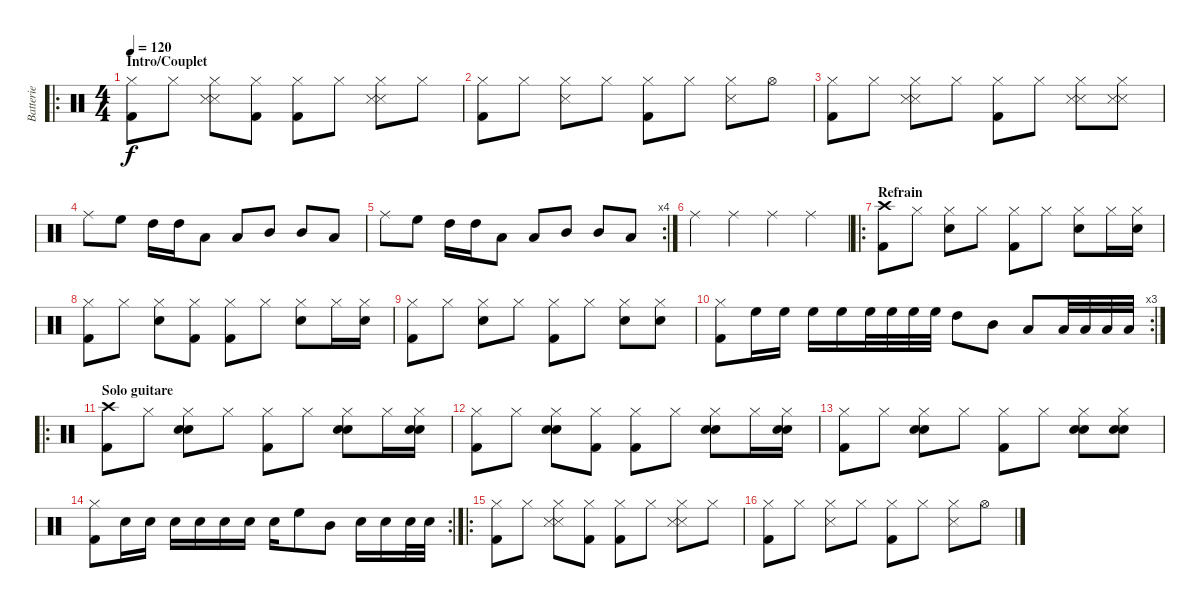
\track ("Batterie" "Batterie") {instrument percussion}
\staff {score}
\articulation defaults
\ro
\ts (4 4)
\section ("" "Intro/Couplet")
\tempo 120
\clef neutral
\ks c
("Hi-Hat (closed)" "Kick (hit) 2").8{dy f} "Hi-Hat (closed)".8 ("Hi-Hat (closed)" "Snare (side stick) 3" "Snare (side stick) 3").8 ("Hi-Hat (closed)" "Kick (hit) 2").8 ("Hi-Hat (closed)" "Kick (hit) 2").8 "Hi-Hat (closed)".8 ("Hi-Hat (closed)" "Snare (side stick) 3" "Snare (side stick) 3").8 "Hi-Hat (closed)".8 |
("Hi-Hat (closed)" "Kick (hit) 2").8 "Hi-Hat (closed)".8 ("Hi-Hat (closed)" "Snare (side stick) 3").8 "Hi-Hat (closed)".8 ("Hi-Hat (closed)" "Kick (hit) 2").8 "Hi-Hat (closed)".8 ("Hi-Hat (closed)" "Snare (side stick) 3").8 "Hi-Hat (open)".8 |
("Hi-Hat (closed)" "Kick (hit) 2").8 "Hi-Hat (closed)".8 ("Hi-Hat (closed)" "Snare (side stick) 3" "Snare (side stick) 3").8 "Hi-Hat (closed)".8 ("Hi-Hat (closed)" "Kick (hit) 2").8 "Hi-Hat (closed)".8 ("Hi-Hat (closed)" "Snare (side stick) 3" "Snare (side stick) 3").8 ("Hi-Hat (closed)" "Snare (side stick) 3" "Snare (side stick) 3").8 |
"Ride (middle)".8 "High Floor Tom (hit)".8 "High Tom (hit)".16 "High Tom (hit)".16 "Low Floor Tom (hit)".8 "Low Floor Tom (hit)".8 "Mid Tom (hit)".8 "Mid Tom (hit)".8 "Low Floor Tom (hit)".8 |
\rc 4 "Ride (middle)".8 "High Floor Tom (hit)".8 "High Tom (hit)".16 "High Tom (hit)".16 "Low Floor Tom (hit)".8 "Low Floor Tom (hit)".8 "Mid Tom (hit)".8 "Mid Tom (hit)".8 "Low Floor Tom (hit)".8
|
"Ride (middle)".4 "Ride (middle)".4 "Ride (middle)".4 "Ride (middle)".4 |
\ro
\section ("" "Refrain")
("Crash high (hit)" "Kick (hit) 2").8 "Hi-Hat (closed)".8 ("Hi-Hat (closed)" "Electric Snare (hit)").8 "Hi-Hat (closed)".8 ("Hi-Hat (closed)" "Kick (hit) 2").8 "Hi-Hat (closed)".8 ("Hi-Hat (closed)" "Electric Snare (hit)").8 "Hi-Hat (closed)".16 ("Hi-Hat (closed)" "Electric Snare (hit)").16 |
("Hi-Hat (closed)" "Kick (hit) 2").8 "Hi-Hat (closed)".8 ("Hi-Hat (closed)" "Electric Snare (hit)").8 ("Hi-Hat (closed)" "Kick (hit) 2").8 ("Hi-Hat (closed)" "Kick (hit) 2").8 "Hi-Hat (closed)".8 ("Hi-Hat (closed)" "Electric Snare (hit)").8 "Hi-Hat (closed)".16 ("Hi-Hat (closed)" "Electric Snare (hit)").16 |
("Hi-Hat (closed)" "Kick (hit) 2").8 "Hi-Hat (closed)".8 ("Hi-Hat (closed)" "Electric Snare (hit)").8 "Hi-Hat (closed)".8 ("Hi-Hat (closed)" "Kick (hit) 2").8 "Hi-Hat (closed)".8 ("Hi-Hat (closed)" "Electric Snare (hit)").8 ("Hi-Hat (closed)" "Electric Snare (hit)").8 |
\rc 3
("Hi-Hat (closed)" "Kick (hit) 2").8 "High Floor Tom (hit)".16 "High Floor Tom (hit)".16 "High Floor Tom (hit)".16 "High Floor Tom (hit)".16 "High Floor Tom (hit)".32 "High Floor Tom (hit)".32 "High Floor Tom (hit)".32 "High Floor Tom (hit)".32 "High Tom (hit)".8 "Mid Tom (hit)".8 "Low Floor Tom (hit)".8 "Low Floor Tom (hit)".32 "Low Floor Tom (hit)".32 "Low Floor Tom (hit)".32 "Low Floor Tom (hit)".32 |
\ro
\section ("" "Solo guitare")
("Crash high (hit)" "Kick (hit) 2").8 "Hi-Hat (closed)".8 ("Hi-Hat (closed)" "Electric Snare (hit)" "Electric Snare (hit)").8 "Hi-Hat (closed)".8 ("Hi-Hat (closed)" "Kick (hit) 2").8 "Hi-Hat (closed)".8 ("Hi-Hat (closed)" "Electric Snare (hit)" "Electric Snare (hit)").8 "Hi-Hat (closed)".16 ("Hi-Hat (closed)" "Electric Snare (hit)" "Electric Snare (hit)").16 |
("Hi-Hat (closed)" "Kick (hit) 2").8 "Hi-Hat (closed)".8 ("Hi-Hat (closed)" "Electric Snare (hit)" "Electric Snare (hit)").8 ("Hi-Hat (closed)" "Kick (hit) 2").8 ("Hi-Hat (closed)" "Kick (hit) 2").8 "Hi-Hat (closed)".8 ("Hi-Hat (closed)" "Electric Snare (hit)" "Electric Snare (hit)").8 "Hi-Hat (closed)".16 ("Hi-Hat (closed)" "Electric Snare (hit)" "Electric Snare (hit)").16 |
("Hi-Hat (closed)" "Kick (hit) 2").8 "Hi-Hat (closed)".8 ("Hi-Hat (closed)" "Electric Snare (hit)" "Electric Snare (hit)").8 "Hi-Hat (closed)".8 ("Hi-Hat (closed)" "Kick (hit) 2").8 "Hi-Hat (closed)".8 ("Hi-Hat (closed)" "Electric Snare (hit)" "Electric Snare (hit)").8 ("Hi-Hat (closed)" "Electric Snare (hit)" "Electric Snare (hit)").8 |
\rc 2
("Hi-Hat (closed)" "Kick (hit) 2").8 "Electric Snare (hit)".16 "Electric Snare (hit)".16 "Electric Snare (hit)".16 "Electric Snare (hit)".16 "Electric Snare (hit)".16 "Electric Snare (hit)".16 "Electric Snare (hit)".16 "High Floor Tom (hit)".8 "Mid Tom (hit)".8 "Electric Snare (hit)".16 "Electric Snare (hit)".16 "Electric Snare (hit)".32 "Electric Snare (hit)".32 |
\ro
("Hi-Hat (closed)" "Kick (hit) 2").8 "Hi-Hat (closed)".8 ("Hi-Hat (closed)" "Snare (side stick) 3" "Snare (side stick) 3").8 ("Hi-Hat (closed)" "Kick (hit) 2").8 ("Hi-Hat (closed)" "Kick (hit) 2").8 "Hi-Hat (closed)".8 ("Hi-Hat (closed)" "Snare (side stick) 3" "Snare (side stick) 3").8 "Hi-Hat (closed)".8 |
("Hi-Hat (closed)" "Kick (hit) 2").8 "Hi-Hat (closed)".8 ("Hi-Hat (closed)" "Snare (side stick) 3").8 "Hi-Hat (closed)".8 ("Hi-Hat (closed)" "Kick (hit) 2").8 "Hi-Hat (closed)".8 ("Hi-Hat (closed)" "Snare (side stick) 3").8 "Hi-Hat (open)".8
